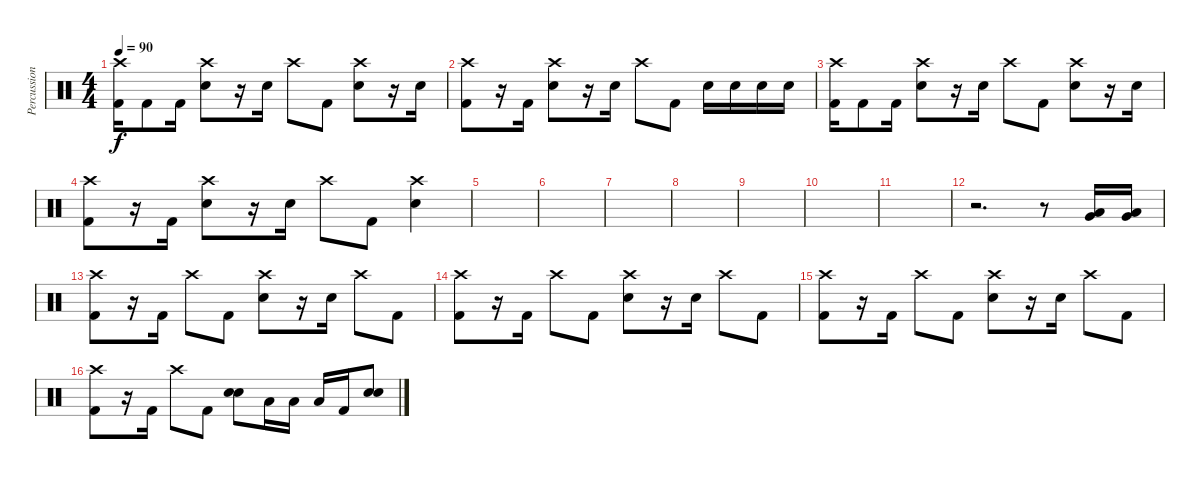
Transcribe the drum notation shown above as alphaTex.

\track ("Percussion" "Percussion") {instrument percussion}
\staff {score}
\articulation defaults
\ts (4 4)
\tempo 90
\clef neutral
\ks c
("Crash high (hit)" "Kick (hit) 2").16{dy f} "Kick (hit) 2".8 "Kick (hit) 2".16 ("Crash high (hit)" "Snare (hit) 2").8 r.16 "Snare (hit) 2".16 "Crash high (hit)".8 "Kick (hit) 2".8 ("Crash high (hit)" "Snare (hit) 2").8 r.16 "Snare (hit) 2".16 |
("Crash high (hit)" "Kick (hit) 2").8 r.16 "Kick (hit) 2".16 ("Crash high (hit)" "Snare (hit) 2").8 r.16 "Snare (hit) 2".16 "Crash high (hit)".8 "Kick (hit) 2".8 "Snare (hit) 2".16 "Snare (hit) 2".16 "Snare (hit) 2".16 "Snare (hit) 2".16 |
("Crash high (hit)" "Kick (hit) 2").16 "Kick (hit) 2".8 "Kick (hit) 2".16 ("Crash high (hit)" "Snare (hit) 2").8 r.16 "Snare (hit) 2".16 "Crash high (hit)".8 "Kick (hit) 2".8 ("Crash high (hit)" "Snare (hit) 2").8 r.16 "Snare (hit) 2".16 |
("Crash high (hit)" "Kick (hit) 2").8 r.16 "Kick (hit) 2".16 ("Crash high (hit)" "Snare (hit) 2").8 r.16 "Snare (hit) 2".16 "Crash high (hit)".8 "Kick (hit) 2".8 ("Crash high (hit)" "Snare (hit) 2").4 |
|
|
|
|
|
|
|
r.2{d} r.8 ("Very Low Tom (hit)" "Low Floor Tom (hit)").16 ("Very Low Tom (hit)" "Low Floor Tom (hit)").16 |
("Crash high (hit)" "Kick (hit) 2").8 r.16 "Kick (hit) 2".16 "Crash high (hit)".8 "Kick (hit) 2".8 ("Crash high (hit)" "Snare (hit) 2").8 r.16 "Snare (hit) 2".16 "Crash high (hit)".8 "Kick (hit) 2".8 |
("Crash high (hit)" "Kick (hit) 2").8 r.16 "Kick (hit) 2".16 "Crash high (hit)".8 "Kick (hit) 2".8 ("Crash high (hit)" "Snare (hit) 2").8 r.16 "Snare (hit) 2".16 "Crash high (hit)".8 "Kick (hit) 2".8 |
("Crash high (hit)" "Kick (hit) 2").8 r.16 "Kick (hit) 2".16 "Crash high (hit)".8 "Kick (hit) 2".8 ("Crash high (hit)" "Snare (hit) 2").8 r.16 "Snare (hit) 2".16 "Crash high (hit)".8 "Kick (hit) 2".8 |
("Crash high (hit)" "Kick (hit) 2").8 r.16 "Kick (hit) 2".16 "Crash high (hit)".8 "Kick (hit) 2".8 ("Snare (hit) 2" "Snare (hit) 2").8 "Low Tom (hit)".16 "Low Tom (hit)".16 "Low Floor Tom (hit)".16 "Kick (hit) 2".16 ("Snare (hit) 2" "Snare (hit) 2").8
